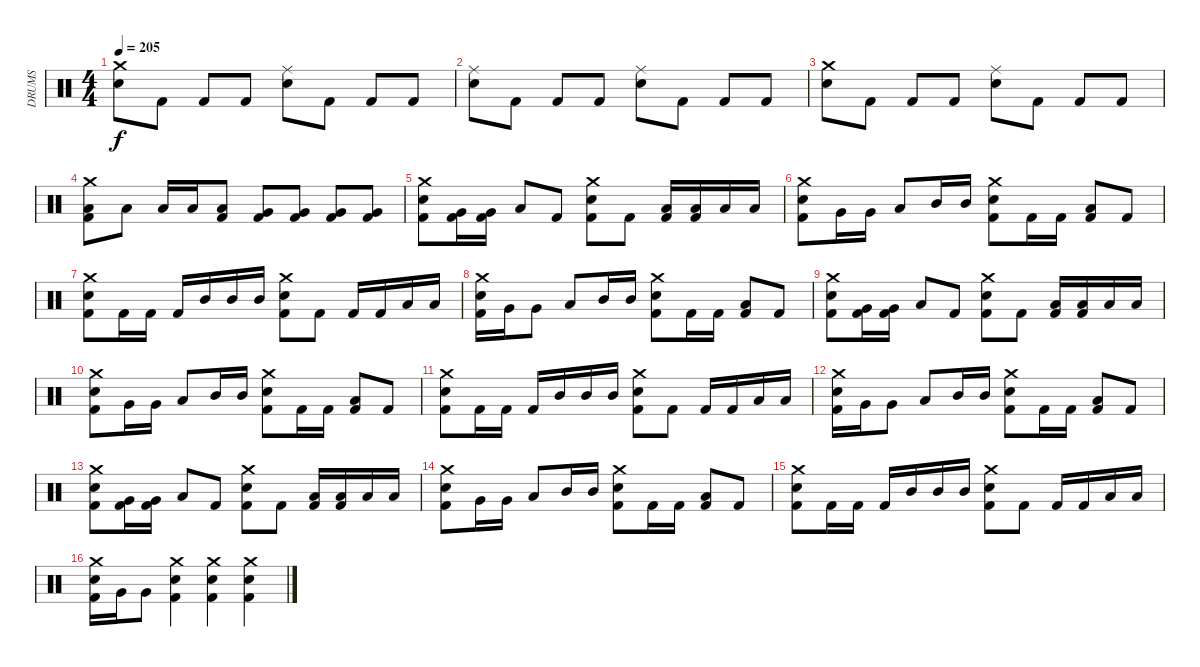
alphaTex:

\track ("DRUMS" "DRUMS") {instrument percussion}
\staff {score}
\articulation defaults
\ts (4 4)
\tempo 205
\clef neutral
\ks c
("Crash medium (hit)" "Snare (hit) 2").8{dy f} "Kick (hit) 2".8 "Kick (hit) 2".8 "Kick (hit) 2".8 ("Ride (middle)" "Snare (hit) 2").8 "Kick (hit) 2".8 "Kick (hit) 2".8 "Kick (hit) 2".8 |
("Ride (middle)" "Snare (hit) 2").8 "Kick (hit) 2".8 "Kick (hit) 2".8 "Kick (hit) 2".8 ("Ride (middle)" "Snare (hit) 2").8 "Kick (hit) 2".8 "Kick (hit) 2".8 "Kick (hit) 2".8 |
("Crash medium (hit)" "Snare (hit) 2").8 "Kick (hit) 2".8 "Kick (hit) 2".8 "Kick (hit) 2".8 ("Ride (middle)" "Snare (hit) 2").8 "Kick (hit) 2".8 "Kick (hit) 2".8 "Kick (hit) 2".8 |
("Crash medium (hit)" "Low Tom (hit)" "Kick (hit) 2").8 "Low Tom (hit)".8 "Low Tom (hit)".16 "Low Tom (hit)".16 ("Low Tom (hit)" "Kick (hit) 2").8 ("Very Low Tom (hit)" "Kick (hit) 2").8 ("Very Low Tom (hit)" "Kick (hit) 2").8 ("Very Low Tom (hit)" "Kick (hit) 2").8 ("Very Low Tom (hit)" "Kick (hit) 2").8 |
("Crash medium (hit)" "Snare (hit) 2" "Kick (hit) 2").8 ("Very Low Tom (hit)" "Kick (hit) 2").16 ("Very Low Tom (hit)" "Kick (hit) 2").16 "Low Tom (hit)".8 "Kick (hit) 2".8 ("Crash medium (hit)" "Snare (hit) 2" "Kick (hit) 2").8 "Kick (hit) 2".8 ("Low Tom (hit)" "Kick (hit) 2").16 ("Low Tom (hit)" "Kick (hit) 2").16 "Low Tom (hit)".16 "Low Tom (hit)".16 |
("Crash medium (hit)" "Snare (hit) 2" "Kick (hit) 2").8 "Very Low Tom (hit)".16 "Very Low Tom (hit)".16 "Low Tom (hit)".8 "Mid Tom (hit)".16 "Mid Tom (hit)".16 ("Crash medium (hit)" "Snare (hit) 2" "Kick (hit) 2").8 "Kick (hit) 2".16 "Kick (hit) 2".16 ("Low Tom (hit)" "Kick (hit) 2").8 "Kick (hit) 2".8 |
("Crash medium (hit)" "Snare (hit) 2" "Kick (hit) 2").8 "Kick (hit) 2".16 "Kick (hit) 2".16 "Kick (hit) 2".16 "Mid Tom (hit)".16 "Mid Tom (hit)".16 "Mid Tom (hit)".16 ("Crash medium (hit)" "Snare (hit) 2" "Kick (hit) 2").8 "Kick (hit) 2".8 "Kick (hit) 2".16 "Kick (hit) 2".16 "Low Tom (hit)".16 "Low Tom (hit)".16 |
("Crash medium (hit)" "Snare (hit) 2" "Kick (hit) 2").16 "Very Low Tom (hit)".16 "Very Low Tom (hit)".8 "Low Tom (hit)".8 "Mid Tom (hit)".16 "Mid Tom (hit)".16 ("Crash medium (hit)" "Snare (hit) 2" "Kick (hit) 2").8 "Kick (hit) 2".16 "Kick (hit) 2".16 ("Low Tom (hit)" "Kick (hit) 2").8 "Kick (hit) 2".8 |
("Crash medium (hit)" "Snare (hit) 2" "Kick (hit) 2").8 ("Very Low Tom (hit)" "Kick (hit) 2").16 ("Very Low Tom (hit)" "Kick (hit) 2").16 "Low Tom (hit)".8 "Kick (hit) 2".8 ("Crash medium (hit)" "Snare (hit) 2" "Kick (hit) 2").8 "Kick (hit) 2".8 ("Low Tom (hit)" "Kick (hit) 2").16 ("Low Tom (hit)" "Kick (hit) 2").16 "Low Tom (hit)".16 "Low Tom (hit)".16 |
("Crash medium (hit)" "Snare (hit) 2" "Kick (hit) 2").8 "Very Low Tom (hit)".16 "Very Low Tom (hit)".16 "Low Tom (hit)".8 "Mid Tom (hit)".16 "Mid Tom (hit)".16 ("Crash medium (hit)" "Snare (hit) 2" "Kick (hit) 2").8 "Kick (hit) 2".16 "Kick (hit) 2".16 ("Low Tom (hit)" "Kick (hit) 2").8 "Kick (hit) 2".8 |
("Crash medium (hit)" "Snare (hit) 2" "Kick (hit) 2").8 "Kick (hit) 2".16 "Kick (hit) 2".16 "Kick (hit) 2".16 "Mid Tom (hit)".16 "Mid Tom (hit)".16 "Mid Tom (hit)".16 ("Crash medium (hit)" "Snare (hit) 2" "Kick (hit) 2").8 "Kick (hit) 2".8 "Kick (hit) 2".16 "Kick (hit) 2".16 "Low Tom (hit)".16 "Low Tom (hit)".16 |
("Crash medium (hit)" "Snare (hit) 2" "Kick (hit) 2").16 "Very Low Tom (hit)".16 "Very Low Tom (hit)".8 "Low Tom (hit)".8 "Mid Tom (hit)".16 "Mid Tom (hit)".16 ("Crash medium (hit)" "Snare (hit) 2" "Kick (hit) 2").8 "Kick (hit) 2".16 "Kick (hit) 2".16 ("Low Tom (hit)" "Kick (hit) 2").8 "Kick (hit) 2".8 |
("Crash medium (hit)" "Snare (hit) 2" "Kick (hit) 2").8 ("Very Low Tom (hit)" "Kick (hit) 2").16 ("Very Low Tom (hit)" "Kick (hit) 2").16 "Low Tom (hit)".8 "Kick (hit) 2".8 ("Crash medium (hit)" "Snare (hit) 2" "Kick (hit) 2").8 "Kick (hit) 2".8 ("Low Tom (hit)" "Kick (hit) 2").16 ("Low Tom (hit)" "Kick (hit) 2").16 "Low Tom (hit)".16 "Low Tom (hit)".16 |
("Crash medium (hit)" "Snare (hit) 2" "Kick (hit) 2").8 "Very Low Tom (hit)".16 "Very Low Tom (hit)".16 "Low Tom (hit)".8 "Mid Tom (hit)".16 "Mid Tom (hit)".16 ("Crash medium (hit)" "Snare (hit) 2" "Kick (hit) 2").8 "Kick (hit) 2".16 "Kick (hit) 2".16 ("Low Tom (hit)" "Kick (hit) 2").8 "Kick (hit) 2".8 |
("Crash medium (hit)" "Snare (hit) 2" "Kick (hit) 2").8 "Kick (hit) 2".16 "Kick (hit) 2".16 "Kick (hit) 2".16 "Mid Tom (hit)".16 "Mid Tom (hit)".16 "Mid Tom (hit)".16 ("Crash medium (hit)" "Snare (hit) 2" "Kick (hit) 2").8 "Kick (hit) 2".8 "Kick (hit) 2".16 "Kick (hit) 2".16 "Low Tom (hit)".16 "Low Tom (hit)".16 |
("Crash medium (hit)" "Snare (hit) 2" "Kick (hit) 2").16 "Very Low Tom (hit)".16 "Very Low Tom (hit)".8 ("Crash medium (hit)" "Snare (hit) 2" "Kick (hit) 2").4 ("Crash medium (hit)" "Snare (hit) 2" "Kick (hit) 2").4 ("Crash medium (hit)" "Snare (hit) 2" "Kick (hit) 2").4
